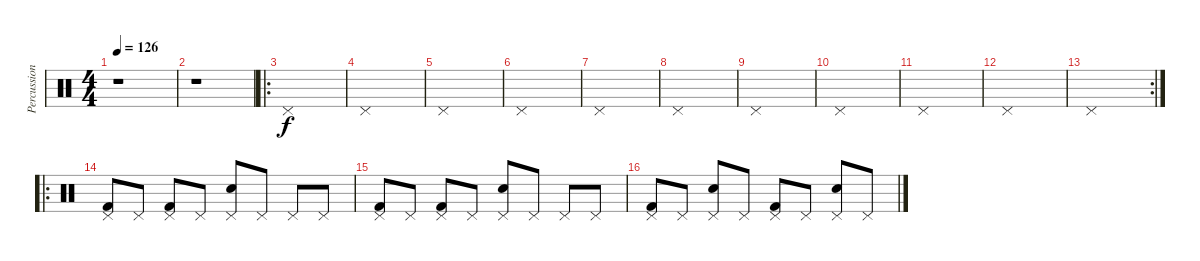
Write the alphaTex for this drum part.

\track ("Percussion" "Percussion") {instrument percussion}
\staff {score}
\articulation defaults
\ts (4 4)
\tempo 126
\clef neutral
\ks c
r.1{dy f} |
r.1 |
\ro "Pedal Hi-Hat (hit)".1
|
"Pedal Hi-Hat (hit)".1 |
"Pedal Hi-Hat (hit)".1 |
"Pedal Hi-Hat (hit)".1 |
"Pedal Hi-Hat (hit)".1 |
"Pedal Hi-Hat (hit)".1 |
"Pedal Hi-Hat (hit)".1 |
"Pedal Hi-Hat (hit)".1 |
"Pedal Hi-Hat (hit)".1 |
"Pedal Hi-Hat (hit)".1 |
\rc 2 "Pedal Hi-Hat (hit)".1
|
\ro
("Kick (hit) 2" "Pedal Hi-Hat (hit)").8 "Pedal Hi-Hat (hit)".8 ("Kick (hit) 2" "Pedal Hi-Hat (hit)").8 "Pedal Hi-Hat (hit)".8 ("Electric Snare (hit)" "Pedal Hi-Hat (hit)").8 "Pedal Hi-Hat (hit)".8 "Pedal Hi-Hat (hit)".8 "Pedal Hi-Hat (hit)".8 |
("Kick (hit) 2" "Pedal Hi-Hat (hit)").8 "Pedal Hi-Hat (hit)".8 ("Kick (hit) 2" "Pedal Hi-Hat (hit)").8 "Pedal Hi-Hat (hit)".8 ("Electric Snare (hit)" "Pedal Hi-Hat (hit)").8 "Pedal Hi-Hat (hit)".8 "Pedal Hi-Hat (hit)".8 "Pedal Hi-Hat (hit)".8 |
("Kick (hit) 2" "Pedal Hi-Hat (hit)").8 "Pedal Hi-Hat (hit)".8 ("Electric Snare (hit)" "Pedal Hi-Hat (hit)").8 "Pedal Hi-Hat (hit)".8 ("Kick (hit) 2" "Pedal Hi-Hat (hit)").8 "Pedal Hi-Hat (hit)".8 ("Electric Snare (hit)" "Pedal Hi-Hat (hit)").8 "Pedal Hi-Hat (hit)".8
